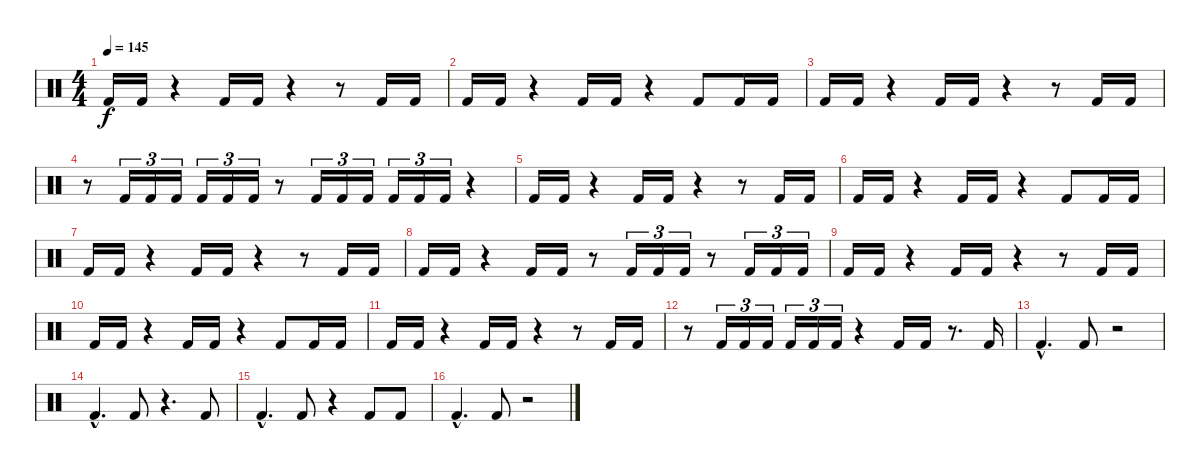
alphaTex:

\track "" {instrument percussion}
\staff {score}
\articulation defaults
\ts (4 4)
\tempo 145
\clef neutral
\ks c "Kick (hit) 2".16{dy f} "Kick (hit) 2".16
r.4 "Kick (hit) 2".16 "Kick (hit) 2".16 r.4 r.8 "Kick (hit) 2".16 "Kick (hit) 2".16 |
"Kick (hit) 2".16 "Kick (hit) 2".16 r.4 "Kick (hit) 2".16 "Kick (hit) 2".16 r.4 "Kick (hit) 2".8 "Kick (hit) 2".16 "Kick (hit) 2".16 |
"Kick (hit) 2".16 "Kick (hit) 2".16 r.4 "Kick (hit) 2".16 "Kick (hit) 2".16 r.4 r.8 "Kick (hit) 2".16 "Kick (hit) 2".16 |
r.8 "Kick (hit) 2".16{tu (3 2)} "Kick (hit) 2".16{tu (3 2)} "Kick (hit) 2".16{tu (3 2)} "Kick (hit) 2".16{tu (3 2)} "Kick (hit) 2".16{tu (3 2)} "Kick (hit) 2".16{tu (3 2)} r.8 "Kick (hit) 2".16{tu (3 2)} "Kick (hit) 2".16{tu (3 2)} "Kick (hit) 2".16{tu (3 2)} "Kick (hit) 2".16{tu (3 2)} "Kick (hit) 2".16{tu (3 2)} "Kick (hit) 2".16{tu (3 2)} r.4 |
"Kick (hit) 2".16 "Kick (hit) 2".16 r.4 "Kick (hit) 2".16 "Kick (hit) 2".16 r.4 r.8 "Kick (hit) 2".16 "Kick (hit) 2".16 |
"Kick (hit) 2".16 "Kick (hit) 2".16 r.4 "Kick (hit) 2".16 "Kick (hit) 2".16 r.4 "Kick (hit) 2".8 "Kick (hit) 2".16 "Kick (hit) 2".16 |
"Kick (hit) 2".16 "Kick (hit) 2".16 r.4 "Kick (hit) 2".16 "Kick (hit) 2".16 r.4 r.8 "Kick (hit) 2".16 "Kick (hit) 2".16 |
"Kick (hit) 2".16 "Kick (hit) 2".16 r.4 "Kick (hit) 2".16 "Kick (hit) 2".16 r.8 "Kick (hit) 2".16{tu (3 2)} "Kick (hit) 2".16{tu (3 2)} "Kick (hit) 2".16{tu (3 2)} r.8 "Kick (hit) 2".16{tu (3 2)} "Kick (hit) 2".16{tu (3 2)} "Kick (hit) 2".16{tu (3 2)} |
"Kick (hit) 2".16 "Kick (hit) 2".16 r.4 "Kick (hit) 2".16 "Kick (hit) 2".16 r.4 r.8 "Kick (hit) 2".16 "Kick (hit) 2".16 |
"Kick (hit) 2".16 "Kick (hit) 2".16 r.4 "Kick (hit) 2".16 "Kick (hit) 2".16 r.4 "Kick (hit) 2".8 "Kick (hit) 2".16 "Kick (hit) 2".16 |
"Kick (hit) 2".16 "Kick (hit) 2".16 r.4 "Kick (hit) 2".16 "Kick (hit) 2".16 r.4 r.8 "Kick (hit) 2".16 "Kick (hit) 2".16 |
r.8 "Kick (hit) 2".16{tu (3 2)} "Kick (hit) 2".16{tu (3 2)} "Kick (hit) 2".16{tu (3 2)} "Kick (hit) 2".16{tu (3 2)} "Kick (hit) 2".16{tu (3 2)} "Kick (hit) 2".16{tu (3 2)} r.4 "Kick (hit) 2".16 "Kick (hit) 2".16 r.8{d} "Kick (hit) 2".16 |
"Kick (hit) 2"{hac}.4{d} "Kick (hit) 2".8 r.2 |
"Kick (hit) 2"{hac}.4{d} "Kick (hit) 2".8 r.4{d} "Kick (hit) 2".8 |
"Kick (hit) 2"{hac}.4{d} "Kick (hit) 2".8 r.4 "Kick (hit) 2".8 "Kick (hit) 2".8 |
"Kick (hit) 2"{hac}.4{d} "Kick (hit) 2".8 r.2
